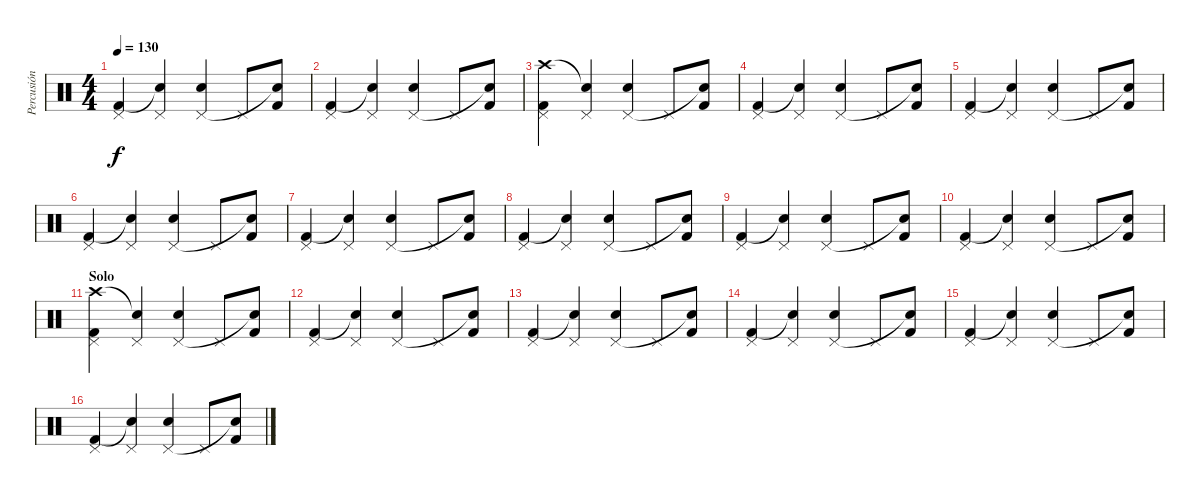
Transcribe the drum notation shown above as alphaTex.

\track ("Percusión" "Percusión") {instrument percussion}
\staff {score}
\articulation defaults
\ts (4 4)
\tempo 130
\clef neutral
\ks c
("Kick (hit) 2" "Pedal Hi-Hat (hit)").4{dy f} ("Snare (hit)"{t} "Pedal Hi-Hat (hit)").4 ("Snare (hit) 2" "Pedal Hi-Hat (hit)").4 "Pedal Hi-Hat (hit)".8 ("Kick (hit) 2" "Snare (hit)"{t}).8 |
("Kick (hit) 2" "Pedal Hi-Hat (hit)").4 ("Snare (hit)"{t} "Pedal Hi-Hat (hit)").4 ("Snare (hit) 2" "Pedal Hi-Hat (hit)").4 "Pedal Hi-Hat (hit)".8 ("Kick (hit) 2" "Snare (hit)"{t}).8 |
("Crash high (hit)" "Kick (hit) 2" "Pedal Hi-Hat (hit)").4 ("Snare (hit)"{t} "Pedal Hi-Hat (hit)").4 ("Snare (hit) 2" "Pedal Hi-Hat (hit)").4 "Pedal Hi-Hat (hit)".8 ("Kick (hit) 2" "Snare (hit)"{t}).8 |
("Kick (hit) 2" "Pedal Hi-Hat (hit)").4 ("Snare (hit)"{t} "Pedal Hi-Hat (hit)").4 ("Snare (hit) 2" "Pedal Hi-Hat (hit)").4 "Pedal Hi-Hat (hit)".8 ("Kick (hit) 2" "Snare (hit)"{t}).8 |
("Kick (hit) 2" "Pedal Hi-Hat (hit)").4 ("Snare (hit)"{t} "Pedal Hi-Hat (hit)").4 ("Snare (hit) 2" "Pedal Hi-Hat (hit)").4 "Pedal Hi-Hat (hit)".8 ("Kick (hit) 2" "Snare (hit)"{t}).8 |
("Kick (hit) 2" "Pedal Hi-Hat (hit)").4 ("Snare (hit)"{t} "Pedal Hi-Hat (hit)").4 ("Snare (hit) 2" "Pedal Hi-Hat (hit)").4 "Pedal Hi-Hat (hit)".8 ("Kick (hit) 2" "Snare (hit)"{t}).8 |
("Kick (hit) 2" "Pedal Hi-Hat (hit)").4 ("Snare (hit)"{t} "Pedal Hi-Hat (hit)").4 ("Snare (hit) 2" "Pedal Hi-Hat (hit)").4 "Pedal Hi-Hat (hit)".8 ("Kick (hit) 2" "Snare (hit)"{t}).8 |
("Kick (hit) 2" "Pedal Hi-Hat (hit)").4 ("Snare (hit)"{t} "Pedal Hi-Hat (hit)").4 ("Snare (hit) 2" "Pedal Hi-Hat (hit)").4 "Pedal Hi-Hat (hit)".8 ("Kick (hit) 2" "Snare (hit)"{t}).8 |
("Kick (hit) 2" "Pedal Hi-Hat (hit)").4 ("Snare (hit)"{t} "Pedal Hi-Hat (hit)").4 ("Snare (hit) 2" "Pedal Hi-Hat (hit)").4 "Pedal Hi-Hat (hit)".8 ("Kick (hit) 2" "Snare (hit)"{t}).8 |
("Kick (hit) 2" "Pedal Hi-Hat (hit)").4 ("Snare (hit)"{t} "Pedal Hi-Hat (hit)").4 ("Snare (hit) 2" "Pedal Hi-Hat (hit)").4 "Pedal Hi-Hat (hit)".8 ("Kick (hit) 2" "Snare (hit)"{t}).8 |
\section ("" "Solo")
("Crash high (hit)" "Kick (hit) 2" "Pedal Hi-Hat (hit)").4 ("Snare (hit)"{t} "Pedal Hi-Hat (hit)").4 ("Snare (hit) 2" "Pedal Hi-Hat (hit)").4 "Pedal Hi-Hat (hit)".8 ("Kick (hit) 2" "Snare (hit)"{t}).8 |
("Kick (hit) 2" "Pedal Hi-Hat (hit)").4 ("Snare (hit)"{t} "Pedal Hi-Hat (hit)").4 ("Snare (hit) 2" "Pedal Hi-Hat (hit)").4 "Pedal Hi-Hat (hit)".8 ("Kick (hit) 2" "Snare (hit)"{t}).8 |
("Kick (hit) 2" "Pedal Hi-Hat (hit)").4 ("Snare (hit)"{t} "Pedal Hi-Hat (hit)").4 ("Snare (hit) 2" "Pedal Hi-Hat (hit)").4 "Pedal Hi-Hat (hit)".8 ("Kick (hit) 2" "Snare (hit)"{t}).8 |
("Kick (hit) 2" "Pedal Hi-Hat (hit)").4 ("Snare (hit)"{t} "Pedal Hi-Hat (hit)").4 ("Snare (hit) 2" "Pedal Hi-Hat (hit)").4 "Pedal Hi-Hat (hit)".8 ("Kick (hit) 2" "Snare (hit)"{t}).8 |
("Kick (hit) 2" "Pedal Hi-Hat (hit)").4 ("Snare (hit)"{t} "Pedal Hi-Hat (hit)").4 ("Snare (hit) 2" "Pedal Hi-Hat (hit)").4 "Pedal Hi-Hat (hit)".8 ("Kick (hit) 2" "Snare (hit)"{t}).8 |
("Kick (hit) 2" "Pedal Hi-Hat (hit)").4 ("Snare (hit)"{t} "Pedal Hi-Hat (hit)").4 ("Snare (hit) 2" "Pedal Hi-Hat (hit)").4 "Pedal Hi-Hat (hit)".8 ("Kick (hit) 2" "Snare (hit)"{t}).8
